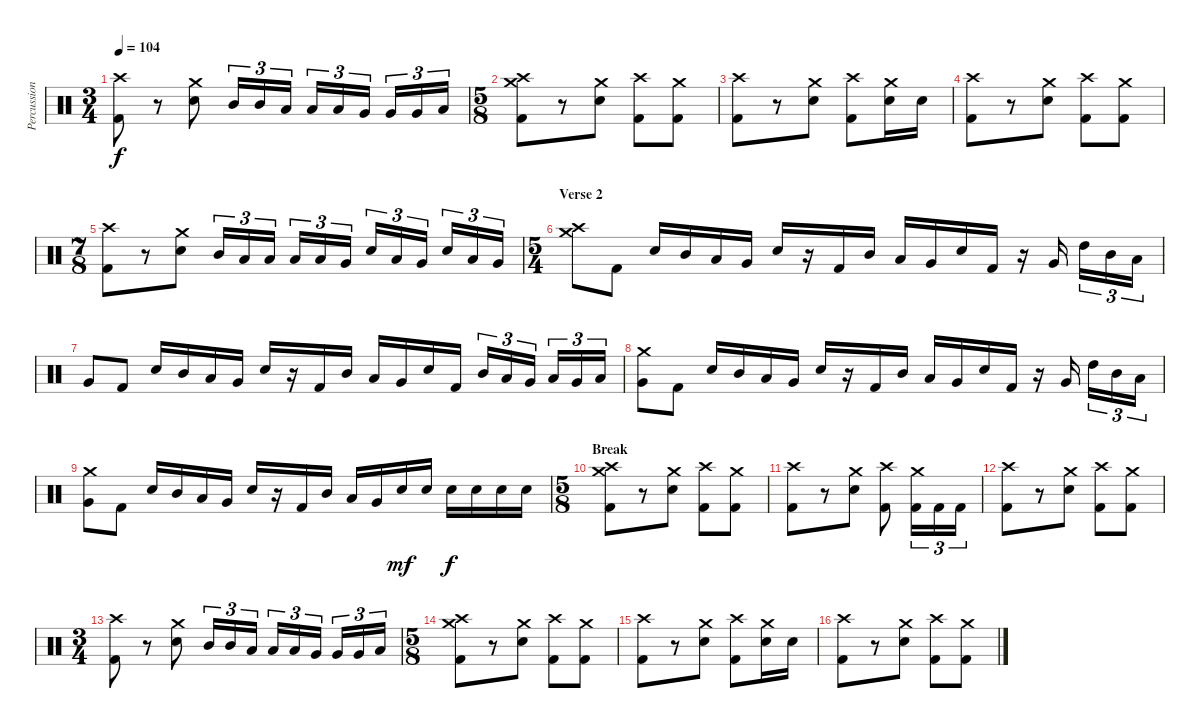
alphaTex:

\track ("Percussions" "Percussion") {instrument percussion}
\staff {score}
\articulation defaults
\ts (3 4)
\tempo 104
\clef neutral
\ks c
("Crash high (hit)" "Kick (hit) 2").8{dy f} r.8 ("Crash medium (hit)" "Electric Snare (hit)").8 "Mid Tom (hit)".16{tu (3 2)} "Mid Tom (hit)".16{tu (3 2)} "Low Tom (hit)".16{tu (3 2)} "Low Tom (hit)".16{tu (3 2)} "Low Tom (hit)".16{tu (3 2)} "Very Low Tom (hit)".16{tu (3 2)} "Very Low Tom (hit)".16{tu (3 2)} "Very Low Tom (hit)".16{tu (3 2)} "Low Floor Tom (hit)".16{tu (3 2)} |
\ts (5 8)
("Crash medium (hit)" "Crash high (hit)" "Kick (hit) 2").8 r.8 ("Crash medium (hit)" "Electric Snare (hit)").8 ("Crash high (hit)" "Kick (hit) 2").8 ("Crash medium (hit)" "Kick (hit) 2").8 |
("Crash high (hit)" "Kick (hit) 2").8 r.8 ("Crash medium (hit)" "Electric Snare (hit)").8 ("Crash high (hit)" "Kick (hit) 2").8 ("Crash medium (hit)" "Electric Snare (hit)").16 "Electric Snare (hit)".16 |
("Crash high (hit)" "Kick (hit) 2").8 r.8 ("Crash medium (hit)" "Electric Snare (hit)").8 ("Crash high (hit)" "Kick (hit) 2").8 ("Crash medium (hit)" "Kick (hit) 2").8 |
\ts (7 8)
("Crash high (hit)" "Kick (hit) 2").8 r.8 ("Crash medium (hit)" "Electric Snare (hit)").8 "Mid Tom (hit)".16{tu (3 2)} "Low Tom (hit)".16{tu (3 2)} "Low Tom (hit)".16{tu (3 2)} "Low Tom (hit)".16{tu (3 2)} "Low Tom (hit)".16{tu (3 2)} "Very Low Tom (hit)".16{tu (3 2)} "Electric Snare (hit)".16{tu (3 2)} "Low Tom (hit)".16{tu (3 2)} "Very Low Tom (hit)".16{tu (3 2)} "Electric Snare (hit)".16{tu (3 2)} "Low Tom (hit)".16{tu (3 2)} "Very Low Tom (hit)".16{tu (3 2)} |
\ts (5 4)
\section ("" "Verse 2")
("Crash high (hit)" "Crash medium (hit)").8 "Kick (hit) 2".8 "Electric Snare (hit)".16 "Mid Tom (hit)".16 "Low Tom (hit)".16 "Very Low Tom (hit)".16 "Electric Snare (hit)".16 r.16 "Kick (hit) 2".16 "Mid Tom (hit)".16 "Low Tom (hit)".16 "Very Low Tom (hit)".16 "Electric Snare (hit)".16 "Kick (hit) 2".16 r.16 "Very Low Tom (hit)".16 "High Tom (hit)".16{tu (3 2)} "Mid Tom (hit)".16{tu (3 2)} "Low Tom (hit)".16{tu (3 2)} |
"Very Low Tom (hit)".8 "Kick (hit) 2".8 "Electric Snare (hit)".16 "Mid Tom (hit)".16 "Low Tom (hit)".16 "Very Low Tom (hit)".16 "Electric Snare (hit)".16 r.16 "Kick (hit) 2".16 "Mid Tom (hit)".16 "Low Tom (hit)".16 "Very Low Tom (hit)".16 "Electric Snare (hit)".16 "Kick (hit) 2".16 "Mid Tom (hit)".16{tu (3 2)} "Low Tom (hit)".16{tu (3 2)} "Very Low Tom (hit)".16{tu (3 2)} "Low Tom (hit)".16{tu (3 2)} "Very Low Tom (hit)".16{tu (3 2)} "Low Floor Tom (hit)".16{tu (3 2)} |
("Crash medium (hit)" "Very Low Tom (hit)").8 "Kick (hit) 2".8 "Electric Snare (hit)".16 "Mid Tom (hit)".16 "Low Tom (hit)".16 "Very Low Tom (hit)".16 "Electric Snare (hit)".16 r.16 "Kick (hit) 2".16 "Mid Tom (hit)".16 "Low Tom (hit)".16 "Very Low Tom (hit)".16 "Electric Snare (hit)".16 "Kick (hit) 2".16 r.16 "Very Low Tom (hit)".16 "High Tom (hit)".16{tu (3 2)} "Mid Tom (hit)".16{tu (3 2)} "Low Tom (hit)".16{tu (3 2)} |
("Crash medium (hit)" "Very Low Tom (hit)").8 "Kick (hit) 2".8 "Electric Snare (hit)".16 "Mid Tom (hit)".16 "Low Tom (hit)".16 "Very Low Tom (hit)".16 "Electric Snare (hit)".16 r.16 "Kick (hit) 2".16 "Mid Tom (hit)".16 "Low Tom (hit)".16 "Very Low Tom (hit)".16 "Electric Snare (hit)".16{dy mf} "Electric Snare (hit)".16 "Electric Snare (hit)".16{dy f} "Electric Snare (hit)".16 "Electric Snare (hit)".16 "Electric Snare (hit)".16 |
\ts (5 8)
\section ("" "Break")
("Crash medium (hit)" "Crash high (hit)" "Kick (hit) 2").8 r.8 ("Crash medium (hit)" "Electric Snare (hit)").8 ("Crash high (hit)" "Kick (hit) 2").8 ("Crash medium (hit)" "Kick (hit) 2").8 |
("Crash high (hit)" "Kick (hit) 2").8 r.8 ("Crash medium (hit)" "Electric Snare (hit)").8 ("Crash high (hit)" "Kick (hit) 2").8 ("Crash medium (hit)" "Kick (hit) 2").16{tu (3 2)} "Kick (hit) 2".16{tu (3 2)} "Kick (hit) 2".16{tu (3 2)} |
("Crash high (hit)" "Kick (hit) 2").8 r.8 ("Crash medium (hit)" "Electric Snare (hit)").8 ("Crash high (hit)" "Kick (hit) 2").8 ("Crash medium (hit)" "Kick (hit) 2").8 |
\ts (3 4)
("Crash high (hit)" "Kick (hit) 2").8 r.8 ("Crash medium (hit)" "Electric Snare (hit)").8 "Mid Tom (hit)".16{tu (3 2)} "Mid Tom (hit)".16{tu (3 2)} "Low Tom (hit)".16{tu (3 2)} "Low Tom (hit)".16{tu (3 2)} "Low Tom (hit)".16{tu (3 2)} "Very Low Tom (hit)".16{tu (3 2)} "Very Low Tom (hit)".16{tu (3 2)} "Very Low Tom (hit)".16{tu (3 2)} "Low Floor Tom (hit)".16{tu (3 2)} |
\ts (5 8)
("Crash medium (hit)" "Crash high (hit)" "Kick (hit) 2").8 r.8 ("Crash medium (hit)" "Electric Snare (hit)").8 ("Crash high (hit)" "Kick (hit) 2").8 ("Crash medium (hit)" "Kick (hit) 2").8 |
("Crash high (hit)" "Kick (hit) 2").8 r.8 ("Crash medium (hit)" "Electric Snare (hit)").8 ("Crash high (hit)" "Kick (hit) 2").8 ("Crash medium (hit)" "Electric Snare (hit)").16 "Electric Snare (hit)".16 |
("Crash high (hit)" "Kick (hit) 2").8 r.8 ("Crash medium (hit)" "Electric Snare (hit)").8 ("Crash high (hit)" "Kick (hit) 2").8 ("Crash medium (hit)" "Kick (hit) 2").8
